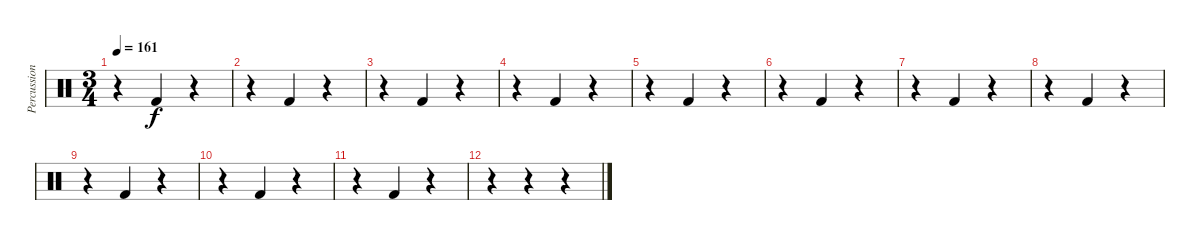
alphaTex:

\track ("Percussion" "Percussion") {instrument percussion}
\staff {score}
\articulation defaults
\ts (3 4)
\tempo 161
\clef neutral
\ks c
r.4{dy f} "Kick (hit) 2".4 r.4 |
r.4 "Kick (hit) 2".4 r.4 |
r.4 "Kick (hit) 2".4 r.4 |
r.4 "Kick (hit) 2".4 r.4 |
r.4 "Kick (hit) 2".4 r.4 |
r.4 "Kick (hit) 2".4 r.4 |
r.4 "Kick (hit) 2".4 r.4 |
r.4 "Kick (hit) 2".4 r.4 |
r.4 "Kick (hit) 2".4 r.4 |
r.4 "Kick (hit) 2".4 r.4 |
r.4 "Kick (hit) 2".4 r.4 |
r.4 r.4 r.4
